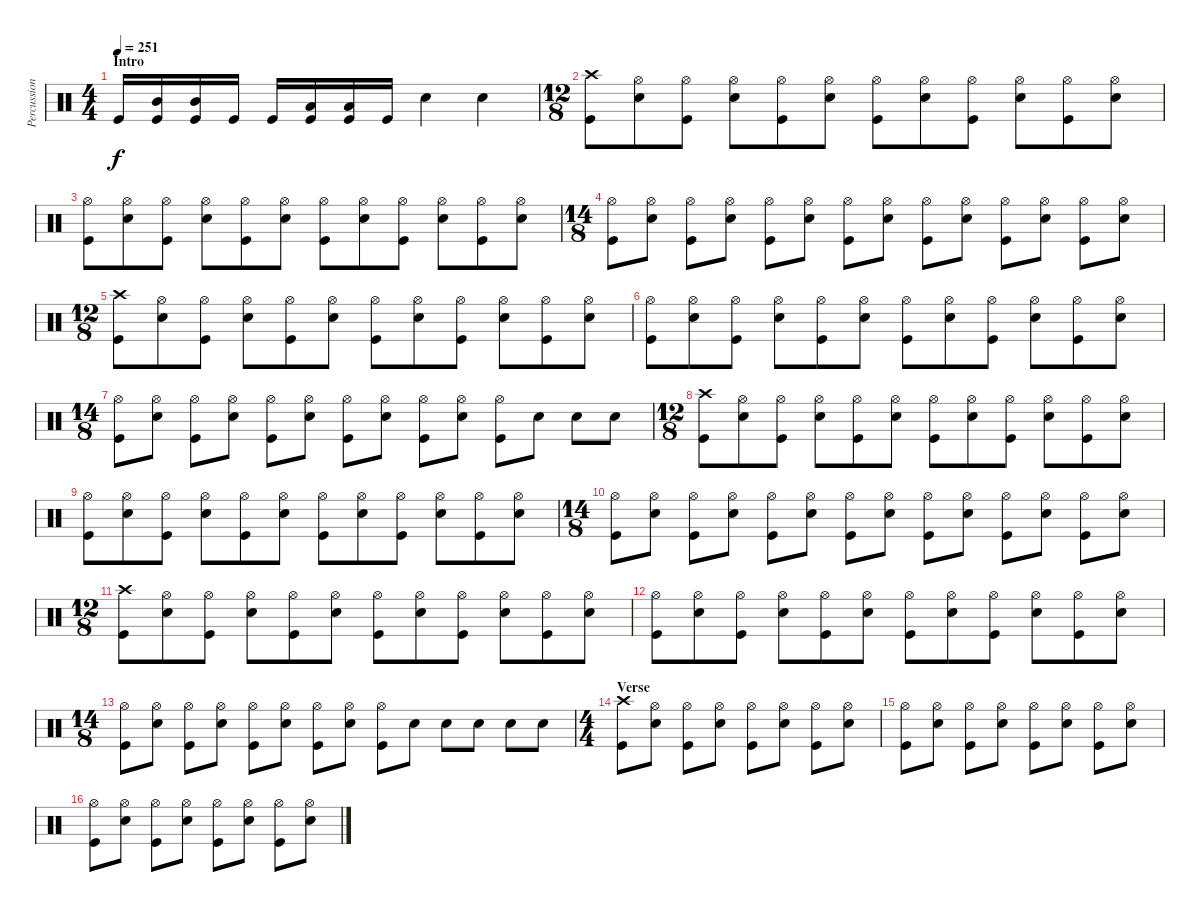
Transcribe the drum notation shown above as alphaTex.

\track ("Percussion" "Percussion") {instrument percussion}
\staff {score}
\articulation defaults
\ts (4 4)
\section ("" "Intro")
\tempo 251
\clef neutral
\ks c "Kick (hit)".16{dy f}
("Mid Tom (hit)" "Kick (hit)").16 ("Mid Tom (hit)" "Kick (hit)").16 "Kick (hit)".16 "Kick (hit)".16 ("Low Tom (hit)" "Kick (hit)").16 ("Low Tom (hit)" "Kick (hit)").16 "Kick (hit)".16 "Electric Snare (hit)".4 "Electric Snare (hit)".4 |
\ts (12 8)
("Crash high (hit)" "Kick (hit)").8 ("Hi-Hat (open)" "Electric Snare (hit)").8 ("Hi-Hat (open)" "Kick (hit)").8 ("Hi-Hat (open)" "Electric Snare (hit)").8 ("Hi-Hat (open)" "Kick (hit)").8 ("Hi-Hat (open)" "Electric Snare (hit)").8 ("Hi-Hat (open)" "Kick (hit)").8 ("Hi-Hat (open)" "Electric Snare (hit)").8 ("Hi-Hat (open)" "Kick (hit)").8 ("Hi-Hat (open)" "Electric Snare (hit)").8 ("Hi-Hat (open)" "Kick (hit)").8 ("Hi-Hat (open)" "Electric Snare (hit)").8 |
("Hi-Hat (open)" "Kick (hit)").8 ("Hi-Hat (open)" "Electric Snare (hit)").8 ("Hi-Hat (open)" "Kick (hit)").8 ("Hi-Hat (open)" "Electric Snare (hit)").8 ("Hi-Hat (open)" "Kick (hit)").8 ("Hi-Hat (open)" "Electric Snare (hit)").8 ("Hi-Hat (open)" "Kick (hit)").8 ("Hi-Hat (open)" "Electric Snare (hit)").8 ("Hi-Hat (open)" "Kick (hit)").8 ("Hi-Hat (open)" "Electric Snare (hit)").8 ("Hi-Hat (open)" "Kick (hit)").8 ("Hi-Hat (open)" "Electric Snare (hit)").8 |
\ts (14 8)
("Hi-Hat (open)" "Kick (hit)").8 ("Hi-Hat (open)" "Electric Snare (hit)").8 ("Hi-Hat (open)" "Kick (hit)").8 ("Hi-Hat (open)" "Electric Snare (hit)").8 ("Hi-Hat (open)" "Kick (hit)").8 ("Hi-Hat (open)" "Electric Snare (hit)").8 ("Hi-Hat (open)" "Kick (hit)").8 ("Hi-Hat (open)" "Electric Snare (hit)").8 ("Hi-Hat (open)" "Kick (hit)").8 ("Hi-Hat (open)" "Electric Snare (hit)").8 ("Hi-Hat (open)" "Kick (hit)").8 ("Hi-Hat (open)" "Electric Snare (hit)").8 ("Hi-Hat (open)" "Kick (hit)").8 ("Hi-Hat (open)" "Electric Snare (hit)").8 |
\ts (12 8)
("Crash high (hit)" "Kick (hit)").8 ("Hi-Hat (open)" "Electric Snare (hit)").8 ("Hi-Hat (open)" "Kick (hit)").8 ("Hi-Hat (open)" "Electric Snare (hit)").8 ("Hi-Hat (open)" "Kick (hit)").8 ("Hi-Hat (open)" "Electric Snare (hit)").8 ("Hi-Hat (open)" "Kick (hit)").8 ("Hi-Hat (open)" "Electric Snare (hit)").8 ("Hi-Hat (open)" "Kick (hit)").8 ("Hi-Hat (open)" "Electric Snare (hit)").8 ("Hi-Hat (open)" "Kick (hit)").8 ("Hi-Hat (open)" "Electric Snare (hit)").8 |
("Hi-Hat (open)" "Kick (hit)").8 ("Hi-Hat (open)" "Electric Snare (hit)").8 ("Hi-Hat (open)" "Kick (hit)").8 ("Hi-Hat (open)" "Electric Snare (hit)").8 ("Hi-Hat (open)" "Kick (hit)").8 ("Hi-Hat (open)" "Electric Snare (hit)").8 ("Hi-Hat (open)" "Kick (hit)").8 ("Hi-Hat (open)" "Electric Snare (hit)").8 ("Hi-Hat (open)" "Kick (hit)").8 ("Hi-Hat (open)" "Electric Snare (hit)").8 ("Hi-Hat (open)" "Kick (hit)").8 ("Hi-Hat (open)" "Electric Snare (hit)").8 |
\ts (14 8)
("Hi-Hat (open)" "Kick (hit)").8 ("Hi-Hat (open)" "Electric Snare (hit)").8 ("Hi-Hat (open)" "Kick (hit)").8 ("Hi-Hat (open)" "Electric Snare (hit)").8 ("Hi-Hat (open)" "Kick (hit)").8 ("Hi-Hat (open)" "Electric Snare (hit)").8 ("Hi-Hat (open)" "Kick (hit)").8 ("Hi-Hat (open)" "Electric Snare (hit)").8 ("Hi-Hat (open)" "Kick (hit)").8 ("Hi-Hat (open)" "Electric Snare (hit)").8 ("Hi-Hat (open)" "Kick (hit)").8 "Electric Snare (hit)".8 "Electric Snare (hit)".8 "Electric Snare (hit)".8 |
\ts (12 8)
("Crash high (hit)" "Kick (hit)").8 ("Hi-Hat (open)" "Electric Snare (hit)").8 ("Hi-Hat (open)" "Kick (hit)").8 ("Hi-Hat (open)" "Electric Snare (hit)").8 ("Hi-Hat (open)" "Kick (hit)").8 ("Hi-Hat (open)" "Electric Snare (hit)").8 ("Hi-Hat (open)" "Kick (hit)").8 ("Hi-Hat (open)" "Electric Snare (hit)").8 ("Hi-Hat (open)" "Kick (hit)").8 ("Hi-Hat (open)" "Electric Snare (hit)").8 ("Hi-Hat (open)" "Kick (hit)").8 ("Hi-Hat (open)" "Electric Snare (hit)").8 |
("Hi-Hat (open)" "Kick (hit)").8 ("Hi-Hat (open)" "Electric Snare (hit)").8 ("Hi-Hat (open)" "Kick (hit)").8 ("Hi-Hat (open)" "Electric Snare (hit)").8 ("Hi-Hat (open)" "Kick (hit)").8 ("Hi-Hat (open)" "Electric Snare (hit)").8 ("Hi-Hat (open)" "Kick (hit)").8 ("Hi-Hat (open)" "Electric Snare (hit)").8 ("Hi-Hat (open)" "Kick (hit)").8 ("Hi-Hat (open)" "Electric Snare (hit)").8 ("Hi-Hat (open)" "Kick (hit)").8 ("Hi-Hat (open)" "Electric Snare (hit)").8 |
\ts (14 8)
("Hi-Hat (open)" "Kick (hit)").8 ("Hi-Hat (open)" "Electric Snare (hit)").8 ("Hi-Hat (open)" "Kick (hit)").8 ("Hi-Hat (open)" "Electric Snare (hit)").8 ("Hi-Hat (open)" "Kick (hit)").8 ("Hi-Hat (open)" "Electric Snare (hit)").8 ("Hi-Hat (open)" "Kick (hit)").8 ("Hi-Hat (open)" "Electric Snare (hit)").8 ("Hi-Hat (open)" "Kick (hit)").8 ("Hi-Hat (open)" "Electric Snare (hit)").8 ("Hi-Hat (open)" "Kick (hit)").8 ("Hi-Hat (open)" "Electric Snare (hit)").8 ("Hi-Hat (open)" "Kick (hit)").8 ("Hi-Hat (open)" "Electric Snare (hit)").8 |
\ts (12 8)
("Crash high (hit)" "Kick (hit)").8 ("Hi-Hat (open)" "Electric Snare (hit)").8 ("Hi-Hat (open)" "Kick (hit)").8 ("Hi-Hat (open)" "Electric Snare (hit)").8 ("Hi-Hat (open)" "Kick (hit)").8 ("Hi-Hat (open)" "Electric Snare (hit)").8 ("Hi-Hat (open)" "Kick (hit)").8 ("Hi-Hat (open)" "Electric Snare (hit)").8 ("Hi-Hat (open)" "Kick (hit)").8 ("Hi-Hat (open)" "Electric Snare (hit)").8 ("Hi-Hat (open)" "Kick (hit)").8 ("Hi-Hat (open)" "Electric Snare (hit)").8 |
("Hi-Hat (open)" "Kick (hit)").8 ("Hi-Hat (open)" "Electric Snare (hit)").8 ("Hi-Hat (open)" "Kick (hit)").8 ("Hi-Hat (open)" "Electric Snare (hit)").8 ("Hi-Hat (open)" "Kick (hit)").8 ("Hi-Hat (open)" "Electric Snare (hit)").8 ("Hi-Hat (open)" "Kick (hit)").8 ("Hi-Hat (open)" "Electric Snare (hit)").8 ("Hi-Hat (open)" "Kick (hit)").8 ("Hi-Hat (open)" "Electric Snare (hit)").8 ("Hi-Hat (open)" "Kick (hit)").8 ("Hi-Hat (open)" "Electric Snare (hit)").8 |
\ts (14 8)
("Hi-Hat (open)" "Kick (hit)").8 ("Hi-Hat (open)" "Electric Snare (hit)").8 ("Hi-Hat (open)" "Kick (hit)").8 ("Hi-Hat (open)" "Electric Snare (hit)").8 ("Hi-Hat (open)" "Kick (hit)").8 ("Hi-Hat (open)" "Electric Snare (hit)").8 ("Hi-Hat (open)" "Kick (hit)").8 ("Hi-Hat (open)" "Electric Snare (hit)").8 ("Hi-Hat (open)" "Kick (hit)").8 "Electric Snare (hit)".8 "Electric Snare (hit)".8 "Electric Snare (hit)".8 "Electric Snare (hit)".8 "Electric Snare (hit)".8 |
\ts (4 4)
\section ("" "Verse")
("Crash high (hit)" "Kick (hit)").8 ("Hi-Hat (open)" "Electric Snare (hit)").8 ("Hi-Hat (open)" "Kick (hit)").8 ("Hi-Hat (open)" "Electric Snare (hit)").8 ("Hi-Hat (open)" "Kick (hit)").8 ("Hi-Hat (open)" "Electric Snare (hit)").8 ("Hi-Hat (open)" "Kick (hit)").8 ("Hi-Hat (open)" "Electric Snare (hit)").8 |
("Hi-Hat (open)" "Kick (hit)").8 ("Hi-Hat (open)" "Electric Snare (hit)").8 ("Hi-Hat (open)" "Kick (hit)").8 ("Hi-Hat (open)" "Electric Snare (hit)").8 ("Hi-Hat (open)" "Kick (hit)").8 ("Hi-Hat (open)" "Electric Snare (hit)").8 ("Hi-Hat (open)" "Kick (hit)").8 ("Hi-Hat (open)" "Electric Snare (hit)").8 |
("Hi-Hat (open)" "Kick (hit)").8 ("Hi-Hat (open)" "Electric Snare (hit)").8 ("Hi-Hat (open)" "Kick (hit)").8 ("Hi-Hat (open)" "Electric Snare (hit)").8 ("Hi-Hat (open)" "Kick (hit)").8 ("Hi-Hat (open)" "Electric Snare (hit)").8 ("Hi-Hat (open)" "Kick (hit)").8 ("Hi-Hat (open)" "Electric Snare (hit)").8
